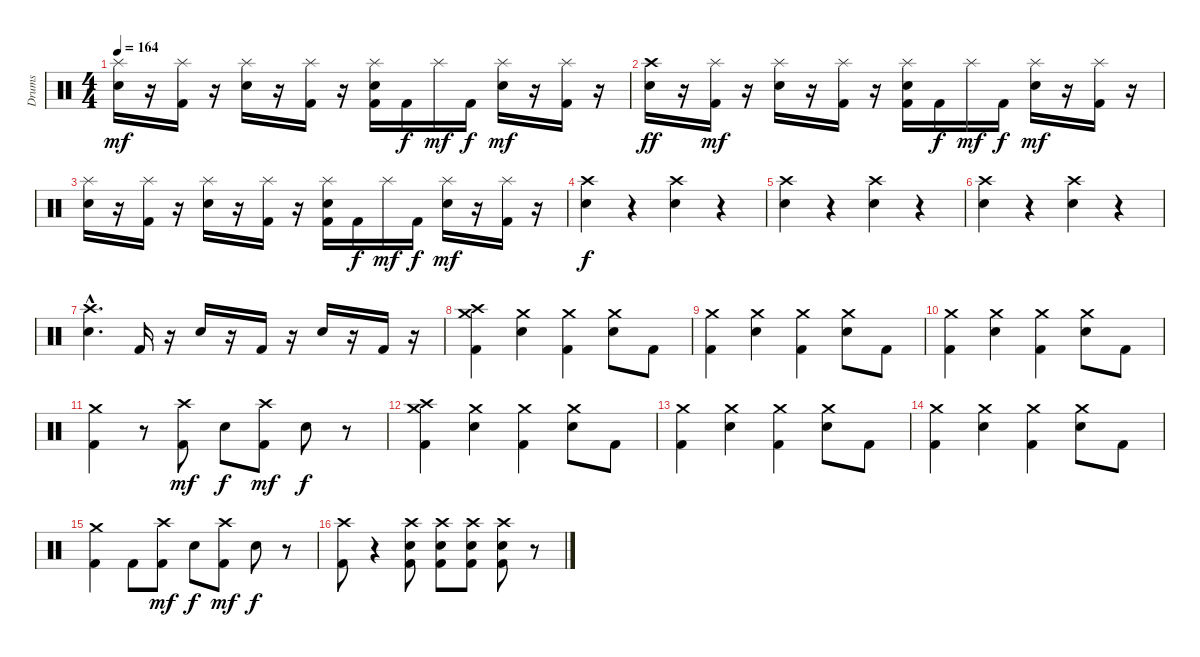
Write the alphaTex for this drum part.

\track ("Drums" "Drums") {instrument percussion}
\staff {score}
\articulation defaults
\ts (4 4)
\tempo 164
\clef neutral
\ks c
("Splash (hit)" "Snare (hit) 2").16{dy mf} r.16 ("Splash (hit)" "Kick (hit) 2").16 r.16 ("Splash (hit)" "Snare (hit) 2").16 r.16 ("Splash (hit)" "Kick (hit) 2").16 r.16 ("Splash (hit)" "Snare (hit) 2" "Kick (hit) 2").16 "Kick (hit) 2".16{dy f} "Splash (hit)".16{dy mf} "Kick (hit) 2".16{dy f} ("Splash (hit)" "Snare (hit) 2").16{dy mf} r.16 ("Splash (hit)" "Kick (hit) 2").16 r.16 |
("Crash high (hit)" "Snare (hit) 2").16{dy ff} r.16 ("Splash (hit)" "Kick (hit) 2").16{dy mf} r.16 ("Splash (hit)" "Snare (hit) 2").16 r.16 ("Splash (hit)" "Kick (hit) 2").16 r.16 ("Splash (hit)" "Snare (hit) 2" "Kick (hit) 2").16 "Kick (hit) 2".16{dy f} "Splash (hit)".16{dy mf} "Kick (hit) 2".16{dy f} ("Splash (hit)" "Snare (hit) 2").16{dy mf} r.16 ("Splash (hit)" "Kick (hit) 2").16 r.16 |
("Splash (hit)" "Snare (hit) 2").16 r.16 ("Splash (hit)" "Kick (hit) 2").16 r.16 ("Splash (hit)" "Snare (hit) 2").16 r.16 ("Splash (hit)" "Kick (hit) 2").16 r.16 ("Splash (hit)" "Snare (hit) 2" "Kick (hit) 2").16 "Kick (hit) 2".16{dy f} "Splash (hit)".16{dy mf} "Kick (hit) 2".16{dy f} ("Splash (hit)" "Snare (hit) 2").16{dy mf} r.16 ("Splash (hit)" "Kick (hit) 2").16 r.16 |
("Crash high (hit)" "Snare (hit) 2").4{dy f} r.4 ("Crash high (hit)" "Snare (hit) 2").4 r.4 |
("Crash high (hit)" "Snare (hit) 2").4 r.4 ("Crash high (hit)" "Snare (hit) 2").4 r.4 |
("Crash high (hit)" "Snare (hit) 2").4 r.4 ("Crash high (hit)" "Snare (hit) 2").4 r.4 |
("Crash high (hit)"{hac} "Snare (hit) 2"{hac}).4{d} "Kick (hit) 2".16 r.16 "Snare (hit) 2".16 r.16 "Kick (hit) 2".16 r.16 "Snare (hit) 2".16 r.16 "Kick (hit) 2".16 r.16 |
("Crash medium (hit)" "Crash high (hit)" "Kick (hit) 2").4 ("Crash medium (hit)" "Snare (hit) 2").4 ("Crash medium (hit)" "Kick (hit) 2").4 ("Crash medium (hit)" "Snare (hit) 2").8 "Kick (hit) 2".8 |
("Crash medium (hit)" "Kick (hit) 2").4 ("Crash medium (hit)" "Snare (hit) 2").4 ("Crash medium (hit)" "Kick (hit) 2").4 ("Crash medium (hit)" "Snare (hit) 2").8 "Kick (hit) 2".8 |
("Crash medium (hit)" "Kick (hit) 2").4 ("Crash medium (hit)" "Snare (hit) 2").4 ("Crash medium (hit)" "Kick (hit) 2").4 ("Crash medium (hit)" "Snare (hit) 2").8 "Kick (hit) 2".8 |
("Crash medium (hit)" "Kick (hit) 2").4 r.8 ("Crash high (hit)" "Kick (hit) 2").8{dy mf} "Snare (hit) 2".8{dy f} ("Crash high (hit)" "Kick (hit) 2").8{dy mf} "Snare (hit) 2".8{dy f} r.8 |
("Crash medium (hit)" "Crash high (hit)" "Kick (hit) 2").4 ("Crash medium (hit)" "Snare (hit) 2").4 ("Crash medium (hit)" "Kick (hit) 2").4 ("Crash medium (hit)" "Snare (hit) 2").8 "Kick (hit) 2".8 |
("Crash medium (hit)" "Kick (hit) 2").4 ("Crash medium (hit)" "Snare (hit) 2").4 ("Crash medium (hit)" "Kick (hit) 2").4 ("Crash medium (hit)" "Snare (hit) 2").8 "Kick (hit) 2".8 |
("Crash medium (hit)" "Kick (hit) 2").4 ("Crash medium (hit)" "Snare (hit) 2").4 ("Crash medium (hit)" "Kick (hit) 2").4 ("Crash medium (hit)" "Snare (hit) 2").8 "Kick (hit) 2".8 |
("Crash medium (hit)" "Kick (hit) 2").4 "Kick (hit) 2".8 ("Crash high (hit)" "Kick (hit) 2").8{dy mf} "Snare (hit) 2".8{dy f} ("Crash high (hit)" "Kick (hit) 2").8{dy mf} "Snare (hit) 2".8{dy f} r.8 |
("Crash high (hit)" "Kick (hit) 2").8 r.4 ("Crash high (hit)" "Snare (hit) 2" "Kick (hit) 2").8 ("Crash high (hit)" "Snare (hit) 2" "Kick (hit) 2").8 ("Crash high (hit)" "Snare (hit) 2" "Kick (hit) 2").8 ("Crash high (hit)" "Snare (hit) 2" "Kick (hit) 2").8 r.8
